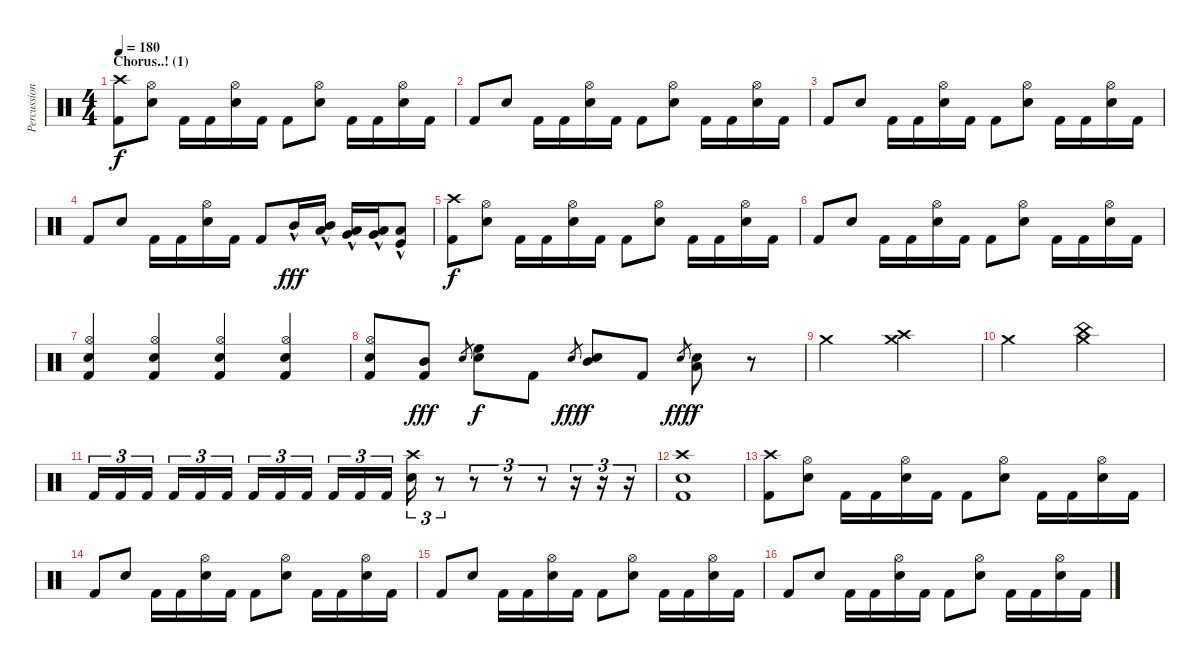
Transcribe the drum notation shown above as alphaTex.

\track ("Percussions" "Percussion") {instrument percussion}
\staff {score}
\articulation defaults
\ts (4 4)
\section ("" "Chorus..! (1)")
\tempo 180
\clef neutral
\ks c
("Crash high (hit)" "Kick (hit) 2").8{dy f} ("Hi-Hat (open)" "Snare (hit) 2").8 "Kick (hit) 2".16 "Kick (hit) 2".16 ("Hi-Hat (open)" "Snare (hit) 2").16 "Kick (hit) 2".16 "Kick (hit) 2".8 ("Hi-Hat (open)" "Snare (hit) 2").8 "Kick (hit) 2".16 "Kick (hit) 2".16 ("Hi-Hat (open)" "Snare (hit) 2").16 "Kick (hit) 2".16 |
"Kick (hit) 2".8 "Snare (hit) 2".8 "Kick (hit) 2".16 "Kick (hit) 2".16 ("Hi-Hat (open)" "Snare (hit) 2").16 "Kick (hit) 2".16 "Kick (hit) 2".8 ("Hi-Hat (open)" "Snare (hit) 2").8 "Kick (hit) 2".16 "Kick (hit) 2".16 ("Hi-Hat (open)" "Snare (hit) 2").16 "Kick (hit) 2".16 |
"Kick (hit) 2".8 "Snare (hit) 2".8 "Kick (hit) 2".16 "Kick (hit) 2".16 ("Hi-Hat (open)" "Snare (hit) 2").16 "Kick (hit) 2".16 "Kick (hit) 2".8 ("Hi-Hat (open)" "Snare (hit) 2").8 "Kick (hit) 2".16 "Kick (hit) 2".16 ("Hi-Hat (open)" "Snare (hit) 2").16 "Kick (hit) 2".16 |
"Kick (hit) 2".8 "Snare (hit) 2".8 "Kick (hit) 2".16 "Kick (hit) 2".16 ("Hi-Hat (open)" "Snare (hit) 2").16 "Kick (hit) 2".16 "Kick (hit) 2".8 "Mid Tom (hit)"{hac}.16{dy fff} ("Mid Tom (hit)"{hac} "Low Tom (hit)"{hac}).16 ("Low Tom (hit)"{hac} "Very Low Tom (hit)"{hac}).16 ("Very Low Tom (hit)"{hac} "Low Floor Tom (hit)"{hac}).16 ("Low Floor Tom (hit)"{hac} "Kick (hit)"{hac}).8 |
("Crash high (hit)" "Kick (hit) 2").8{dy f} ("Hi-Hat (open)" "Snare (hit) 2").8 "Kick (hit) 2".16 "Kick (hit) 2".16 ("Hi-Hat (open)" "Snare (hit) 2").16 "Kick (hit) 2".16 "Kick (hit) 2".8 ("Hi-Hat (open)" "Snare (hit) 2").8 "Kick (hit) 2".16 "Kick (hit) 2".16 ("Hi-Hat (open)" "Snare (hit) 2").16 "Kick (hit) 2".16 |
"Kick (hit) 2".8 "Snare (hit) 2".8 "Kick (hit) 2".16 "Kick (hit) 2".16 ("Hi-Hat (open)" "Snare (hit) 2").16 "Kick (hit) 2".16 "Kick (hit) 2".8 ("Hi-Hat (open)" "Snare (hit) 2").8 "Kick (hit) 2".16 "Kick (hit) 2".16 ("Hi-Hat (open)" "Snare (hit) 2").16 "Kick (hit) 2".16 |
("Hi-Hat (open)" "Snare (hit) 2" "Kick (hit) 2").4 ("Hi-Hat (open)" "Snare (hit) 2" "Kick (hit) 2").4 ("Hi-Hat (open)" "Snare (hit) 2" "Kick (hit) 2").4 ("Hi-Hat (open)" "Snare (hit) 2" "Kick (hit) 2").4 |
("Hi-Hat (open)" "Snare (hit) 2" "Kick (hit) 2").8 ("Mid Tom (hit)" "Kick (hit) 2").8{dy fff} "Snare (hit) 2".8{gr} ("High Floor Tom (hit)" "Snare (hit) 2").8{dy f} "Kick (hit) 2".8 "Snare (hit) 2".8{gr dy fff} ("Mid Tom (hit)" "Snare (hit) 2").8{dy f} "Kick (hit) 2".8 "Snare (hit) 2".8{gr dy fff} ("Low Tom (hit)" "Snare (hit) 2").8{dy f} r.8 |
"Crash medium (hit)".2 ("Crash medium (hit)" "Crash high (hit)").2 |
"Crash medium (hit)".2 ("China (hit)" "Crash medium (hit)").2 |
"Kick (hit) 2".16{tu (3 2)} "Kick (hit) 2".16{tu (3 2)} "Kick (hit) 2".16{tu (3 2) beam splitsecondary} "Kick (hit) 2".16{tu (3 2)} "Kick (hit) 2".16{tu (3 2)} "Kick (hit) 2".16{tu (3 2)} "Kick (hit) 2".16{tu (3 2)} "Kick (hit) 2".16{tu (3 2)} "Kick (hit) 2".16{tu (3 2) beam splitsecondary} "Kick (hit) 2".16{tu (3 2)} "Kick (hit) 2".16{tu (3 2)} "Kick (hit) 2".16{tu (3 2)} ("Crash high (hit)" "Snare (hit) 2").16{tu (3 2)} r.8{tu (3 2)} r.8{tu (3 2)} r.8{tu (3 2)} r.8{tu (3 2)} r.16{tu (3 2)} r.16{tu (3 2)} r.16{tu (3 2)} |
("Crash high (hit)" "Snare (hit) 2" "Kick (hit) 2").1 |
("Crash high (hit)" "Kick (hit) 2").8 ("Hi-Hat (open)" "Snare (hit) 2").8 "Kick (hit) 2".16 "Kick (hit) 2".16 ("Hi-Hat (open)" "Snare (hit) 2").16 "Kick (hit) 2".16 "Kick (hit) 2".8 ("Hi-Hat (open)" "Snare (hit) 2").8 "Kick (hit) 2".16 "Kick (hit) 2".16 ("Hi-Hat (open)" "Snare (hit) 2").16 "Kick (hit) 2".16 |
"Kick (hit) 2".8 "Snare (hit) 2".8 "Kick (hit) 2".16 "Kick (hit) 2".16 ("Hi-Hat (open)" "Snare (hit) 2").16 "Kick (hit) 2".16 "Kick (hit) 2".8 ("Hi-Hat (open)" "Snare (hit) 2").8 "Kick (hit) 2".16 "Kick (hit) 2".16 ("Hi-Hat (open)" "Snare (hit) 2").16 "Kick (hit) 2".16 |
"Kick (hit) 2".8 "Snare (hit) 2".8 "Kick (hit) 2".16 "Kick (hit) 2".16 ("Hi-Hat (open)" "Snare (hit) 2").16 "Kick (hit) 2".16 "Kick (hit) 2".8 ("Hi-Hat (open)" "Snare (hit) 2").8 "Kick (hit) 2".16 "Kick (hit) 2".16 ("Hi-Hat (open)" "Snare (hit) 2").16 "Kick (hit) 2".16 |
"Kick (hit) 2".8 "Snare (hit) 2".8 "Kick (hit) 2".16 "Kick (hit) 2".16 ("Hi-Hat (open)" "Snare (hit) 2").16 "Kick (hit) 2".16 "Kick (hit) 2".8 ("Hi-Hat (open)" "Snare (hit) 2").8 "Kick (hit) 2".16 "Kick (hit) 2".16 ("Hi-Hat (open)" "Snare (hit) 2").16 "Kick (hit) 2".16
